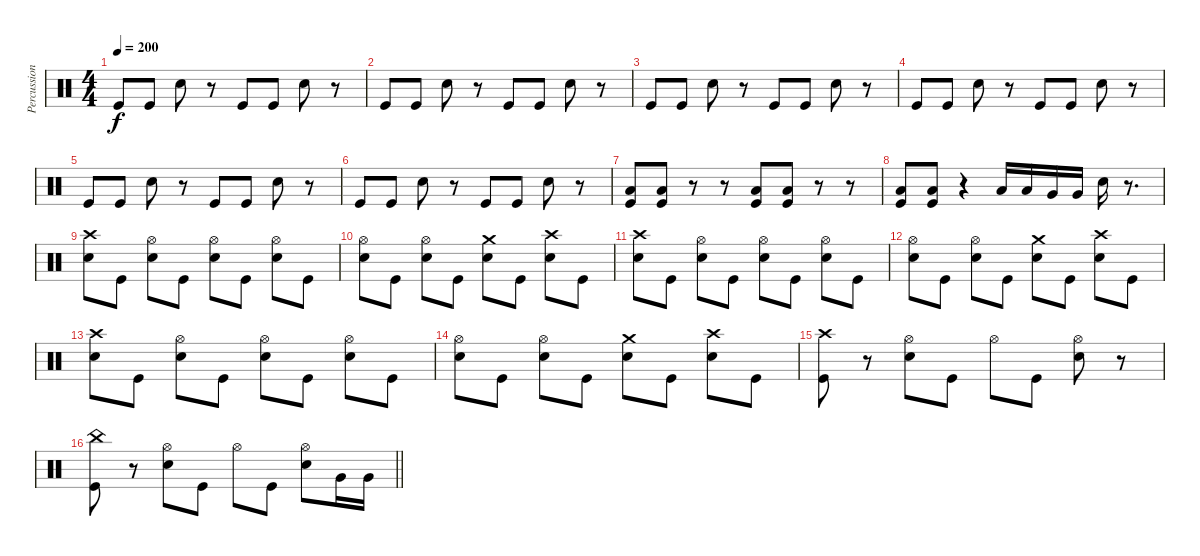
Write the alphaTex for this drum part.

\track ("Percussioni" "Percussion") {instrument percussion}
\staff {score}
\articulation defaults
\ts (4 4)
\tempo 200
\clef neutral
\ks c "Kick (hit)".8{dy f} "Kick (hit)".8 "Snare (hit) 2".8
r.8 "Kick (hit)".8 "Kick (hit)".8 "Snare (hit) 2".8 r.8 |
"Kick (hit)".8 "Kick (hit)".8 "Snare (hit) 2".8 r.8 "Kick (hit)".8 "Kick (hit)".8 "Snare (hit) 2".8 r.8 |
"Kick (hit)".8 "Kick (hit)".8 "Snare (hit) 2".8 r.8 "Kick (hit)".8 "Kick (hit)".8 "Snare (hit) 2".8 r.8 |
"Kick (hit)".8 "Kick (hit)".8 "Snare (hit) 2".8 r.8 "Kick (hit)".8 "Kick (hit)".8 "Snare (hit) 2".8 r.8 |
"Kick (hit)".8 "Kick (hit)".8 "Snare (hit) 2".8 r.8 "Kick (hit)".8 "Kick (hit)".8 "Snare (hit) 2".8 r.8 |
"Kick (hit)".8 "Kick (hit)".8 "Snare (hit) 2".8 r.8 "Kick (hit)".8 "Kick (hit)".8 "Snare (hit) 2".8 r.8 |
("Low Tom (hit)" "Kick (hit)").8 ("Low Tom (hit)" "Kick (hit)").8 r.8 r.8 ("Low Tom (hit)" "Kick (hit)").8 ("Low Tom (hit)" "Kick (hit)").8 r.8 r.8 |
("Low Tom (hit)" "Kick (hit)").8 ("Low Tom (hit)" "Kick (hit)").8 r.4 "Low Tom (hit)".16 "Low Tom (hit)".16 "Very Low Tom (hit)".16 "Very Low Tom (hit)".16 "Snare (hit) 2".16 r.8{d} |
("Crash high (hit)" "Snare (hit) 2").8 "Kick (hit)".8 ("Hi-Hat (open)" "Snare (hit) 2").8 "Kick (hit)".8 ("Hi-Hat (open)" "Snare (hit) 2").8 "Kick (hit)".8 ("Hi-Hat (open)" "Snare (hit) 2").8 "Kick (hit)".8 |
("Hi-Hat (open)" "Snare (hit) 2").8 "Kick (hit)".8 ("Hi-Hat (open)" "Snare (hit) 2").8 "Kick (hit)".8 ("Crash medium (hit)" "Snare (hit) 2").8 "Kick (hit)".8 ("Crash high (hit)" "Snare (hit) 2").8 "Kick (hit)".8 |
("Crash high (hit)" "Snare (hit) 2").8 "Kick (hit)".8 ("Hi-Hat (open)" "Snare (hit) 2").8 "Kick (hit)".8 ("Hi-Hat (open)" "Snare (hit) 2").8 "Kick (hit)".8 ("Hi-Hat (open)" "Snare (hit) 2").8 "Kick (hit)".8 |
("Hi-Hat (open)" "Snare (hit) 2").8 "Kick (hit)".8 ("Hi-Hat (open)" "Snare (hit) 2").8 "Kick (hit)".8 ("Crash medium (hit)" "Snare (hit) 2").8 "Kick (hit)".8 ("Crash high (hit)" "Snare (hit) 2").8 "Kick (hit)".8 |
("Crash high (hit)" "Snare (hit) 2").8 "Kick (hit)".8 ("Hi-Hat (open)" "Snare (hit) 2").8 "Kick (hit)".8 ("Hi-Hat (open)" "Snare (hit) 2").8 "Kick (hit)".8 ("Hi-Hat (open)" "Snare (hit) 2").8 "Kick (hit)".8 |
("Hi-Hat (open)" "Snare (hit) 2").8 "Kick (hit)".8 ("Hi-Hat (open)" "Snare (hit) 2").8 "Kick (hit)".8 ("Crash medium (hit)" "Snare (hit) 2").8 "Kick (hit)".8 ("Crash high (hit)" "Snare (hit) 2").8 "Kick (hit)".8 |
("Crash high (hit)" "Kick (hit)").8 r.8 ("Hi-Hat (open)" "Snare (hit) 2").8 "Kick (hit)".8 "Hi-Hat (open)".8 "Kick (hit)".8 ("Hi-Hat (open)" "Snare (hit) 2").8 r.8 |
\barLineRight lightlight
("China (hit)" "Kick (hit)").8 r.8 ("Hi-Hat (open)" "Snare (hit) 2").8 "Kick (hit)".8 "Hi-Hat (open)".8 "Kick (hit)".8 ("Hi-Hat (open)" "Snare (hit) 2").8 "Very Low Tom (hit)".16 "Very Low Tom (hit)".16
